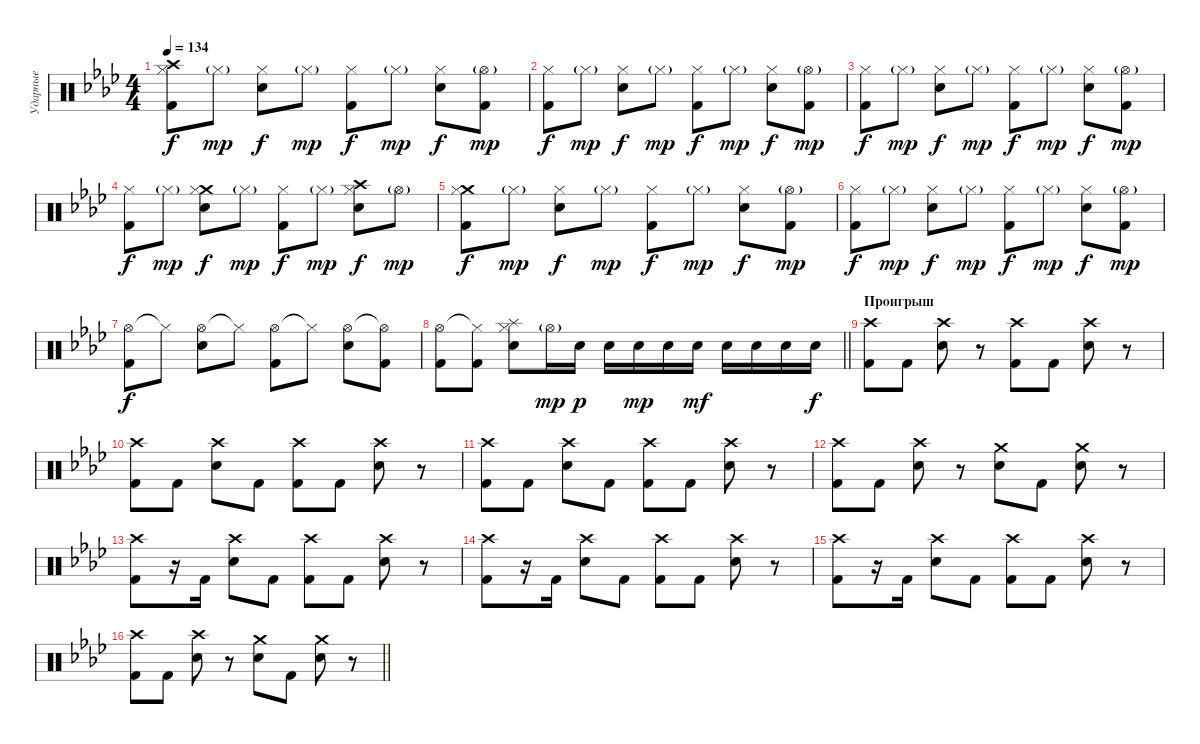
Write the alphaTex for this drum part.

\track ("Ударные" "Ударные") {instrument percussion}
\staff {score}
\articulation defaults
\ts (4 4)
\tempo 134
\clef neutral
\ks fminor
("Crash high (hit)" "Hi-Hat (closed)" "Kick (hit) 2").8{dy f} "Hi-Hat (closed)"{g}.8{dy mp} ("Hi-Hat (closed)" "Electric Snare (hit)").8{dy f} "Hi-Hat (closed)"{g}.8{dy mp} ("Hi-Hat (closed)" "Kick (hit) 2").8{dy f} "Hi-Hat (closed)"{g}.8{dy mp} ("Hi-Hat (closed)" "Electric Snare (hit)").8{dy f} ("Hi-Hat (open)"{g} "Kick (hit) 2").8{dy mp} |
("Hi-Hat (closed)" "Kick (hit) 2").8{dy f} "Hi-Hat (closed)"{g}.8{dy mp} ("Hi-Hat (closed)" "Electric Snare (hit)").8{dy f} "Hi-Hat (closed)"{g}.8{dy mp} ("Hi-Hat (closed)" "Kick (hit) 2").8{dy f} "Hi-Hat (closed)"{g}.8{dy mp} ("Hi-Hat (closed)" "Electric Snare (hit)").8{dy f} ("Hi-Hat (open)"{g} "Kick (hit) 2").8{dy mp} |
("Hi-Hat (closed)" "Kick (hit) 2").8{dy f} "Hi-Hat (closed)"{g}.8{dy mp} ("Hi-Hat (closed)" "Electric Snare (hit)").8{dy f} "Hi-Hat (closed)"{g}.8{dy mp} ("Hi-Hat (closed)" "Kick (hit) 2").8{dy f} "Hi-Hat (closed)"{g}.8{dy mp} ("Hi-Hat (closed)" "Electric Snare (hit)").8{dy f} ("Hi-Hat (open)"{g} "Kick (hit) 2").8{dy mp} |
("Hi-Hat (closed)" "Kick (hit) 2").8{dy f} "Hi-Hat (closed)"{g}.8{dy mp} ("Crash medium (hit)" "Hi-Hat (closed)" "Electric Snare (hit)").8{dy f} "Hi-Hat (closed)"{g}.8{dy mp} ("Hi-Hat (closed)" "Kick (hit) 2").8{dy f} "Hi-Hat (closed)"{g}.8{dy mp} ("Crash high (hit)" "Hi-Hat (closed)" "Electric Snare (hit)").8{dy f} "Hi-Hat (open)"{g}.8{dy mp} |
("Crash medium (hit)" "Hi-Hat (closed)" "Kick (hit) 2").8{dy f} "Hi-Hat (closed)"{g}.8{dy mp} ("Hi-Hat (closed)" "Electric Snare (hit)").8{dy f} "Hi-Hat (closed)"{g}.8{dy mp} ("Hi-Hat (closed)" "Kick (hit) 2").8{dy f} "Hi-Hat (closed)"{g}.8{dy mp} ("Hi-Hat (closed)" "Electric Snare (hit)").8{dy f} ("Hi-Hat (open)"{g} "Kick (hit) 2").8{dy mp} |
("Hi-Hat (closed)" "Kick (hit) 2").8{dy f} "Hi-Hat (closed)"{g}.8{dy mp} ("Hi-Hat (closed)" "Electric Snare (hit)").8{dy f} "Hi-Hat (closed)"{g}.8{dy mp} ("Hi-Hat (closed)" "Kick (hit) 2").8{dy f} "Hi-Hat (closed)"{g}.8{dy mp} ("Hi-Hat (closed)" "Electric Snare (hit)").8{dy f} ("Hi-Hat (open)"{g} "Kick (hit) 2").8{dy mp} |
("Hi-Hat (open)" "Kick (hit) 2").8{dy f} "Hi-Hat (closed)"{t}.8 ("Hi-Hat (open)" "Electric Snare (hit)").8 "Hi-Hat (closed)"{t}.8 ("Hi-Hat (open)" "Kick (hit) 2").8 "Hi-Hat (closed)"{t}.8 ("Hi-Hat (open)" "Electric Snare (hit)").8 ("Hi-Hat (open)"{t} "Kick (hit) 2").8 |
\barLineRight lightlight
("Hi-Hat (open)" "Kick (hit) 2").8 ("Hi-Hat (closed)"{t} "Kick (hit) 2").8 ("Splash (hit)" "Hi-Hat (closed)" "Electric Snare (hit)").8 "Hi-Hat (open)"{g}.16{dy mp} "Electric Snare (hit)".16{dy p} "Electric Snare (hit)".16 "Electric Snare (hit)".16{dy mp} "Electric Snare (hit)".16 "Electric Snare (hit)".16{dy mf} "Electric Snare (hit)".16 "Electric Snare (hit)".16 "Electric Snare (hit)".16 "Electric Snare (hit)".16{dy f} |
\section ("" "Проигрыш")
("Crash high (hit)" "Kick (hit) 2").8 "Kick (hit) 2".8 ("Crash high (hit)" "Electric Snare (hit)").8 r.8 ("Crash high (hit)" "Kick (hit) 2").8 "Kick (hit) 2".8 ("Crash high (hit)" "Electric Snare (hit)").8 r.8 |
("Crash high (hit)" "Kick (hit) 2").8 "Kick (hit) 2".8 ("Crash high (hit)" "Electric Snare (hit)").8 "Kick (hit) 2".8 ("Crash high (hit)" "Kick (hit) 2").8 "Kick (hit) 2".8 ("Crash high (hit)" "Electric Snare (hit)").8 r.8 |
("Crash high (hit)" "Kick (hit) 2").8 "Kick (hit) 2".8 ("Crash high (hit)" "Electric Snare (hit)").8 "Kick (hit) 2".8 ("Crash high (hit)" "Kick (hit) 2").8 "Kick (hit) 2".8 ("Crash high (hit)" "Electric Snare (hit)").8 r.8 |
("Crash high (hit)" "Kick (hit) 2").8 "Kick (hit) 2".8 ("Crash high (hit)" "Electric Snare (hit)").8 r.8 ("Crash medium (hit)" "Electric Snare (hit)").8 "Kick (hit) 2".8 ("Crash medium (hit)" "Electric Snare (hit)").8 r.8 |
("Crash high (hit)" "Kick (hit) 2").8 r.16 "Kick (hit) 2".16 ("Crash high (hit)" "Electric Snare (hit)").8 "Kick (hit) 2".8 ("Crash high (hit)" "Kick (hit) 2").8 "Kick (hit) 2".8 ("Crash high (hit)" "Electric Snare (hit)").8 r.8 |
("Crash high (hit)" "Kick (hit) 2").8 r.16 "Kick (hit) 2".16 ("Crash high (hit)" "Electric Snare (hit)").8 "Kick (hit) 2".8 ("Crash high (hit)" "Kick (hit) 2").8 "Kick (hit) 2".8 ("Crash high (hit)" "Electric Snare (hit)").8 r.8 |
("Crash high (hit)" "Kick (hit) 2").8 r.16 "Kick (hit) 2".16 ("Crash high (hit)" "Electric Snare (hit)").8 "Kick (hit) 2".8 ("Crash high (hit)" "Kick (hit) 2").8 "Kick (hit) 2".8 ("Crash high (hit)" "Electric Snare (hit)").8 r.8 |
\barLineRight lightlight
("Crash high (hit)" "Kick (hit) 2").8 "Kick (hit) 2".8 ("Crash high (hit)" "Electric Snare (hit)").8 r.8 ("Crash medium (hit)" "Electric Snare (hit)").8 "Kick (hit) 2".8 ("Crash medium (hit)" "Electric Snare (hit)").8 r.8
